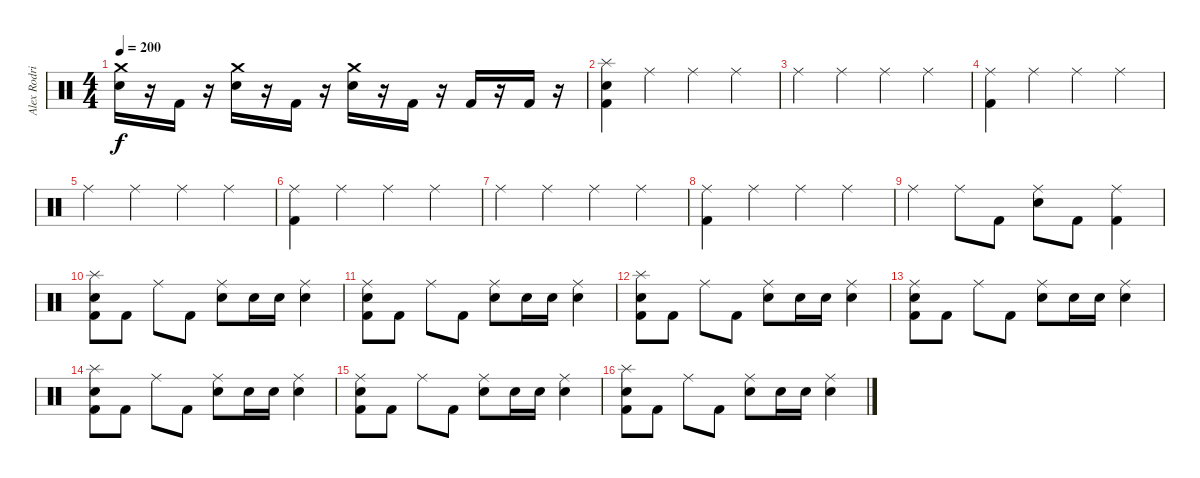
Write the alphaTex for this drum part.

\track ("Alex Rodriguez" "Alex Rodri") {instrument percussion}
\staff {score}
\articulation defaults
\ts (4 4)
\tempo 200
\clef neutral
\ks c
("Crash medium (hit)" "Electric Snare (hit)").16{dy f} r.16 "Kick (hit) 2".16 r.16 ("Crash medium (hit)" "Electric Snare (hit)").16 r.16 "Kick (hit) 2".16 r.16 ("Crash medium (hit)" "Electric Snare (hit)").16 r.16 "Kick (hit) 2".16 r.16 "Kick (hit) 2".16 r.16 "Kick (hit) 2".16 r.16 |
("Splash (hit)" "Electric Snare (hit)" "Kick (hit) 2").4 "Ride (middle)".4 "Ride (middle)".4 "Ride (middle)".4 |
"Ride (middle)".4 "Ride (middle)".4 "Ride (middle)".4 "Ride (middle)".4 |
("Ride (middle)" "Kick (hit) 2").4 "Ride (middle)".4 "Ride (middle)".4 "Ride (middle)".4 |
"Ride (middle)".4 "Ride (middle)".4 "Ride (middle)".4 "Ride (middle)".4 |
("Ride (middle)" "Kick (hit) 2").4 "Ride (middle)".4 "Ride (middle)".4 "Ride (middle)".4 |
"Ride (middle)".4 "Ride (middle)".4 "Ride (middle)".4 "Ride (middle)".4 |
("Ride (middle)" "Kick (hit) 2").4 "Ride (middle)".4 "Ride (middle)".4 "Ride (middle)".4 |
"Ride (middle)".4 "Ride (middle)".8 "Kick (hit) 2".8 ("Ride (middle)" "Electric Snare (hit)").8 "Kick (hit) 2".8 ("Ride (middle)" "Kick (hit) 2").4 |
("Splash (hit)" "Electric Snare (hit)" "Kick (hit) 2").8 "Kick (hit) 2".8 "Ride (middle)".8 "Kick (hit) 2".8 ("Ride (middle)" "Electric Snare (hit)").8 "Electric Snare (hit)".16 "Electric Snare (hit)".16 ("Ride (middle)" "Electric Snare (hit)").4 |
("Ride (middle)" "Electric Snare (hit)" "Kick (hit) 2").8 "Kick (hit) 2".8 "Ride (middle)".8 "Kick (hit) 2".8 ("Ride (middle)" "Electric Snare (hit)").8 "Electric Snare (hit)".16 "Electric Snare (hit)".16 ("Ride (middle)" "Electric Snare (hit)").4 |
("Splash (hit)" "Electric Snare (hit)" "Kick (hit) 2").8 "Kick (hit) 2".8 "Ride (middle)".8 "Kick (hit) 2".8 ("Ride (middle)" "Electric Snare (hit)").8 "Electric Snare (hit)".16 "Electric Snare (hit)".16 ("Ride (middle)" "Electric Snare (hit)").4 |
("Ride (middle)" "Electric Snare (hit)" "Kick (hit) 2").8 "Kick (hit) 2".8 "Ride (middle)".8 "Kick (hit) 2".8 ("Ride (middle)" "Electric Snare (hit)").8 "Electric Snare (hit)".16 "Electric Snare (hit)".16 ("Ride (middle)" "Electric Snare (hit)").4 |
("Splash (hit)" "Electric Snare (hit)" "Kick (hit) 2").8 "Kick (hit) 2".8 "Ride (middle)".8 "Kick (hit) 2".8 ("Ride (middle)" "Electric Snare (hit)").8 "Electric Snare (hit)".16 "Electric Snare (hit)".16 ("Ride (middle)" "Electric Snare (hit)").4 |
("Ride (middle)" "Electric Snare (hit)" "Kick (hit) 2").8 "Kick (hit) 2".8 "Ride (middle)".8 "Kick (hit) 2".8 ("Ride (middle)" "Electric Snare (hit)").8 "Electric Snare (hit)".16 "Electric Snare (hit)".16 ("Ride (middle)" "Electric Snare (hit)").4 |
("Splash (hit)" "Electric Snare (hit)" "Kick (hit) 2").8 "Kick (hit) 2".8 "Ride (middle)".8 "Kick (hit) 2".8 ("Ride (middle)" "Electric Snare (hit)").8 "Electric Snare (hit)".16 "Electric Snare (hit)".16 ("Ride (middle)" "Electric Snare (hit)").4
